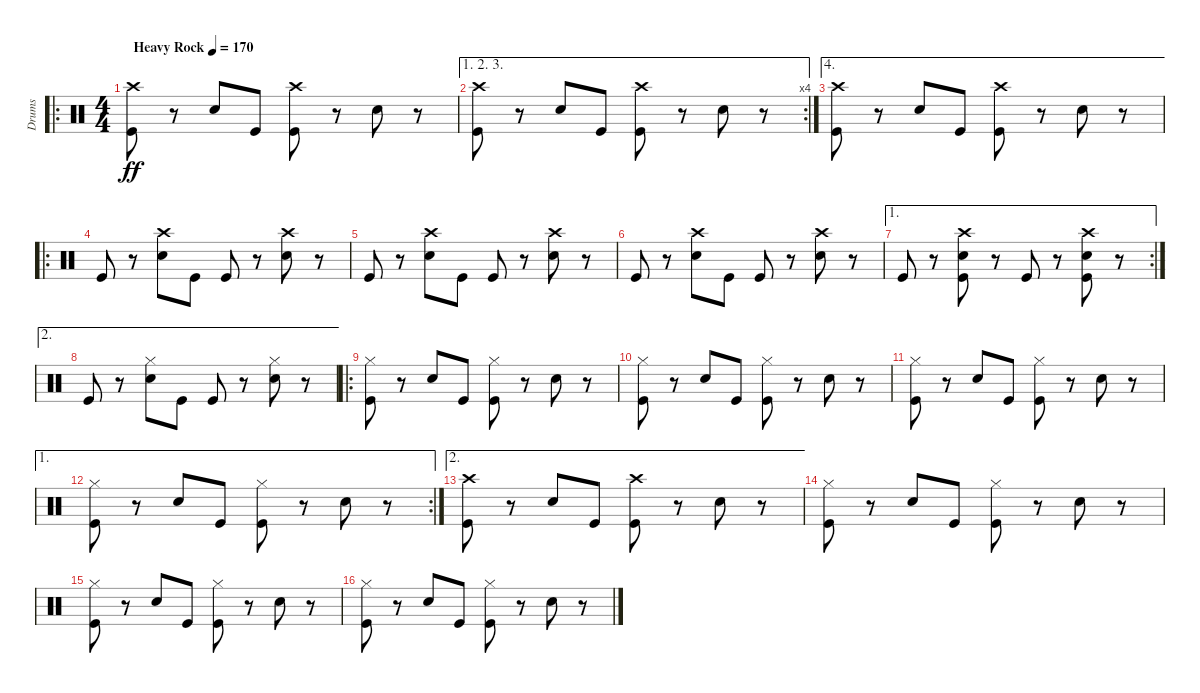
\track ("Drums" "Drums") {instrument percussion}
\staff {score}
\articulation defaults
\ro
\ts (4 4)
\tempo (170 "Heavy Rock")
\clef neutral
\ks c
("Crash high (hit)" "Kick (hit)").8{dy ff} r.8 "Snare (hit) 2".8 "Kick (hit)".8 ("Crash high (hit)" "Kick (hit)").8 r.8 "Snare (hit) 2".8 r.8 |
\ae (1 2 3)
\rc 4
("Crash high (hit)" "Kick (hit)").8 r.8 "Snare (hit) 2".8 "Kick (hit)".8 ("Crash high (hit)" "Kick (hit)").8 r.8 "Snare (hit) 2".8 r.8 |
\ae 4
("Crash high (hit)" "Kick (hit)").8 r.8 "Snare (hit) 2".8 "Kick (hit)".8 ("Crash high (hit)" "Kick (hit)").8 r.8 "Snare (hit) 2".8 r.8 |
\ro "Kick (hit)".8
r.8 ("Crash high (hit)" "Snare (hit) 2").8 "Kick (hit)".8 "Kick (hit)".8 r.8 ("Crash high (hit)" "Snare (hit) 2").8 r.8 |
"Kick (hit)".8 r.8 ("Crash high (hit)" "Snare (hit) 2").8 "Kick (hit)".8 "Kick (hit)".8 r.8 ("Crash high (hit)" "Snare (hit) 2").8 r.8 |
"Kick (hit)".8 r.8 ("Crash high (hit)" "Snare (hit) 2").8 "Kick (hit)".8 "Kick (hit)".8 r.8 ("Crash high (hit)" "Snare (hit) 2").8 r.8 |
\ae 1
\rc 2 "Kick (hit)".8
r.8 ("Crash high (hit)" "Snare (hit) 2" "Kick (hit)").8 r.8 "Kick (hit)".8 r.8 ("Crash high (hit)" "Snare (hit) 2" "Kick (hit)").8 r.8 |
\ae 2 "Kick (hit)".8
r.8 ("Hi-Hat (closed)" "Snare (hit) 2").8 "Kick (hit)".8 "Kick (hit)".8 r.8 ("Hi-Hat (closed)" "Snare (hit) 2").8 r.8 |
\ro
("Hi-Hat (closed)" "Kick (hit)").8 r.8 "Snare (hit) 2".8 "Kick (hit)".8 ("Hi-Hat (closed)" "Kick (hit)").8 r.8 "Snare (hit) 2".8 r.8 |
("Hi-Hat (closed)" "Kick (hit)").8 r.8 "Snare (hit) 2".8 "Kick (hit)".8 ("Hi-Hat (closed)" "Kick (hit)").8 r.8 "Snare (hit) 2".8 r.8 |
("Hi-Hat (closed)" "Kick (hit)").8 r.8 "Snare (hit) 2".8 "Kick (hit)".8 ("Hi-Hat (closed)" "Kick (hit)").8 r.8 "Snare (hit) 2".8 r.8 |
\ae 1
\rc 2
("Hi-Hat (closed)" "Kick (hit)").8 r.8 "Snare (hit) 2".8 "Kick (hit)".8 ("Hi-Hat (closed)" "Kick (hit)").8 r.8 "Snare (hit) 2".8 r.8 |
\ae 2
("Crash high (hit)" "Kick (hit)").8 r.8 "Snare (hit) 2".8 "Kick (hit)".8 ("Crash high (hit)" "Kick (hit)").8 r.8 "Snare (hit) 2".8 r.8 |
("Hi-Hat (closed)" "Kick (hit)").8 r.8 "Snare (hit) 2".8 "Kick (hit)".8 ("Hi-Hat (closed)" "Kick (hit)").8 r.8 "Snare (hit) 2".8 r.8 |
("Hi-Hat (closed)" "Kick (hit)").8 r.8 "Snare (hit) 2".8 "Kick (hit)".8 ("Hi-Hat (closed)" "Kick (hit)").8 r.8 "Snare (hit) 2".8 r.8 |
("Hi-Hat (closed)" "Kick (hit)").8 r.8 "Snare (hit) 2".8 "Kick (hit)".8 ("Hi-Hat (closed)" "Kick (hit)").8 r.8 "Snare (hit) 2".8 r.8
